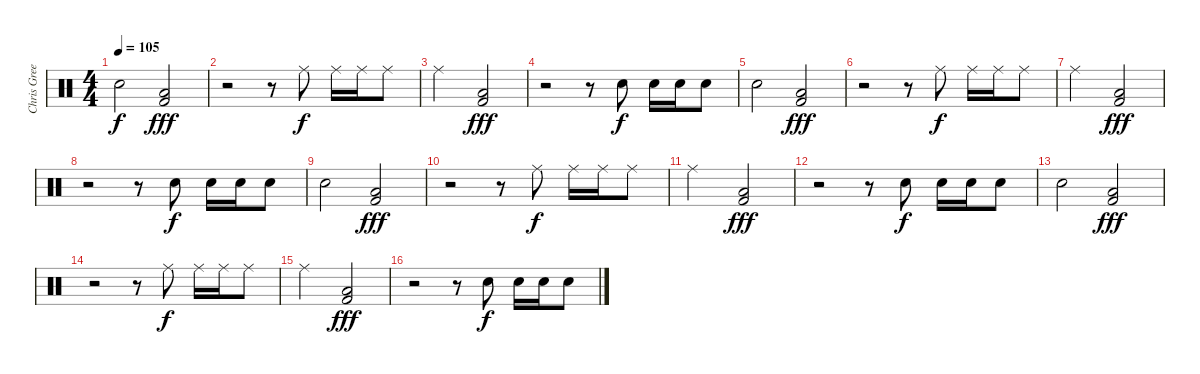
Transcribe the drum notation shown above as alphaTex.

\track ("Chris Greene" "Chris Gree") {instrument percussion}
\staff {score}
\articulation defaults
\ts (4 4)
\tempo 105
\clef neutral
\ks c "Electric Snare (hit)".2{dy f}
("Low Floor Tom (hit)" "Kick (hit) 2").2{dy fff} |
r.2 r.8 "Ride (middle)".8{dy f} "Ride (middle)".16 "Ride (middle)".16 "Ride (middle)".8 |
"Ride (middle)".2 ("Low Floor Tom (hit)" "Kick (hit) 2").2{dy fff} |
r.2 r.8 "Electric Snare (hit)".8{dy f} "Electric Snare (hit)".16 "Electric Snare (hit)".16 "Electric Snare (hit)".8 |
"Electric Snare (hit)".2 ("Low Floor Tom (hit)" "Kick (hit) 2").2{dy fff} |
r.2 r.8 "Ride (middle)".8{dy f} "Ride (middle)".16 "Ride (middle)".16 "Ride (middle)".8 |
"Ride (middle)".2 ("Low Floor Tom (hit)" "Kick (hit) 2").2{dy fff} |
r.2 r.8 "Electric Snare (hit)".8{dy f} "Electric Snare (hit)".16 "Electric Snare (hit)".16 "Electric Snare (hit)".8 |
"Electric Snare (hit)".2 ("Low Floor Tom (hit)" "Kick (hit) 2").2{dy fff} |
r.2 r.8 "Ride (middle)".8{dy f} "Ride (middle)".16 "Ride (middle)".16 "Ride (middle)".8 |
"Ride (middle)".2 ("Low Floor Tom (hit)" "Kick (hit) 2").2{dy fff} |
r.2 r.8 "Electric Snare (hit)".8{dy f} "Electric Snare (hit)".16 "Electric Snare (hit)".16 "Electric Snare (hit)".8 |
"Electric Snare (hit)".2 ("Low Floor Tom (hit)" "Kick (hit) 2").2{dy fff} |
r.2 r.8 "Ride (middle)".8{dy f} "Ride (middle)".16 "Ride (middle)".16 "Ride (middle)".8 |
"Ride (middle)".2 ("Low Floor Tom (hit)" "Kick (hit) 2").2{dy fff} |
r.2 r.8 "Electric Snare (hit)".8{dy f} "Electric Snare (hit)".16 "Electric Snare (hit)".16 "Electric Snare (hit)".8
